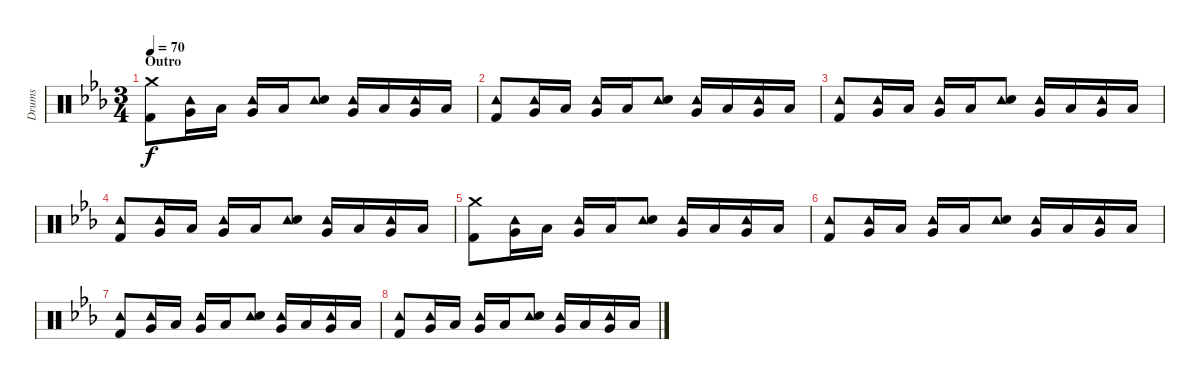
\track ("Drums" "Drums") {instrument percussion}
\staff {score}
\articulation defaults
\ts (3 4)
\section ("" "Outro")
\tempo 70
\clef neutral
\ks cminor
("Crash medium (hit)" "Kick (hit) 2").8{dy f} ("Tambourine (hit)" "Very Low Tom (hit)").16 "Low Floor Tom (hit)".16 ("Tambourine (hit)" "Very Low Tom (hit)").16 "Low Floor Tom (hit)".16 ("Tambourine (hit)" "Snare (hit) 2").8 ("Tambourine (hit)" "Very Low Tom (hit)").16 "Low Floor Tom (hit)".16 ("Tambourine (hit)" "Very Low Tom (hit)").16 "Low Floor Tom (hit)".16 |
("Tambourine (hit)" "Kick (hit) 2").8 ("Tambourine (hit)" "Very Low Tom (hit)").16 "Low Floor Tom (hit)".16 ("Tambourine (hit)" "Very Low Tom (hit)").16 "Low Floor Tom (hit)".16 ("Tambourine (hit)" "Snare (hit) 2").8 ("Tambourine (hit)" "Very Low Tom (hit)").16 "Low Floor Tom (hit)".16 ("Tambourine (hit)" "Very Low Tom (hit)").16 "Low Floor Tom (hit)".16 |
("Tambourine (hit)" "Kick (hit) 2").8 ("Tambourine (hit)" "Very Low Tom (hit)").16 "Low Floor Tom (hit)".16 ("Tambourine (hit)" "Very Low Tom (hit)").16 "Low Floor Tom (hit)".16 ("Tambourine (hit)" "Snare (hit) 2").8 ("Tambourine (hit)" "Very Low Tom (hit)").16 "Low Floor Tom (hit)".16 ("Tambourine (hit)" "Very Low Tom (hit)").16 "Low Floor Tom (hit)".16 |
("Tambourine (hit)" "Kick (hit) 2").8 ("Tambourine (hit)" "Very Low Tom (hit)").16 "Low Floor Tom (hit)".16 ("Tambourine (hit)" "Very Low Tom (hit)").16 "Low Floor Tom (hit)".16 ("Tambourine (hit)" "Snare (hit) 2").8 ("Tambourine (hit)" "Very Low Tom (hit)").16 "Low Floor Tom (hit)".16 ("Tambourine (hit)" "Very Low Tom (hit)").16 "Low Floor Tom (hit)".16 |
("Crash medium (hit)" "Kick (hit) 2").8 ("Tambourine (hit)" "Very Low Tom (hit)").16 "Low Floor Tom (hit)".16 ("Tambourine (hit)" "Very Low Tom (hit)").16 "Low Floor Tom (hit)".16 ("Tambourine (hit)" "Snare (hit) 2").8 ("Tambourine (hit)" "Very Low Tom (hit)").16 "Low Floor Tom (hit)".16 ("Tambourine (hit)" "Very Low Tom (hit)").16 "Low Floor Tom (hit)".16 |
("Tambourine (hit)" "Kick (hit) 2").8 ("Tambourine (hit)" "Very Low Tom (hit)").16 "Low Floor Tom (hit)".16 ("Tambourine (hit)" "Very Low Tom (hit)").16 "Low Floor Tom (hit)".16 ("Tambourine (hit)" "Snare (hit) 2").8 ("Tambourine (hit)" "Very Low Tom (hit)").16 "Low Floor Tom (hit)".16 ("Tambourine (hit)" "Very Low Tom (hit)").16 "Low Floor Tom (hit)".16 |
("Tambourine (hit)" "Kick (hit) 2").8 ("Tambourine (hit)" "Very Low Tom (hit)").16 "Low Floor Tom (hit)".16 ("Tambourine (hit)" "Very Low Tom (hit)").16 "Low Floor Tom (hit)".16 ("Tambourine (hit)" "Snare (hit) 2").8 ("Tambourine (hit)" "Very Low Tom (hit)").16 "Low Floor Tom (hit)".16 ("Tambourine (hit)" "Very Low Tom (hit)").16 "Low Floor Tom (hit)".16 |
("Tambourine (hit)" "Kick (hit) 2").8 ("Tambourine (hit)" "Very Low Tom (hit)").16 "Low Floor Tom (hit)".16 ("Tambourine (hit)" "Very Low Tom (hit)").16 "Low Floor Tom (hit)".16 ("Tambourine (hit)" "Snare (hit) 2").8 ("Tambourine (hit)" "Very Low Tom (hit)").16 "Low Floor Tom (hit)".16 ("Tambourine (hit)" "Very Low Tom (hit)").16 "Low Floor Tom (hit)".16
